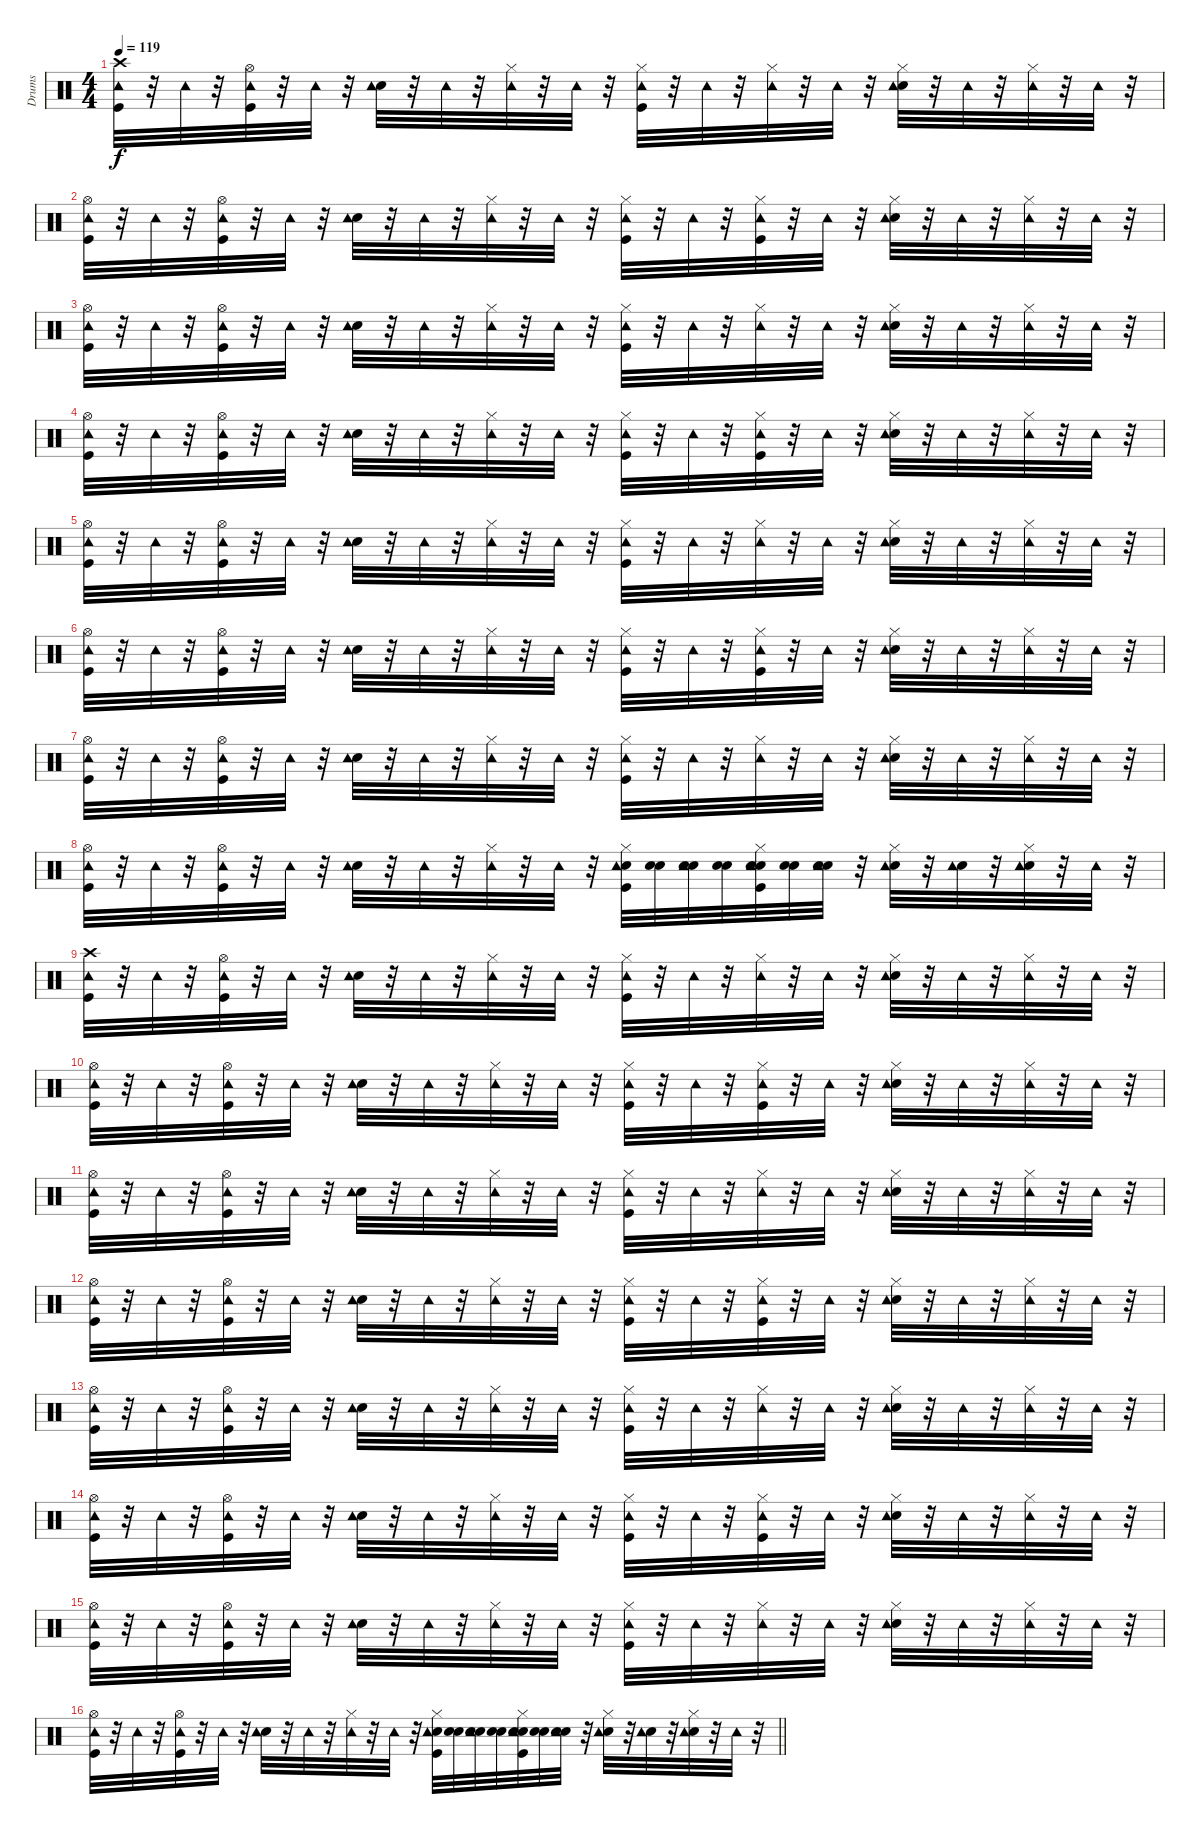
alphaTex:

\track ("Drums" "Drums") {instrument percussion}
\staff {score}
\articulation defaults
\ts (4 4)
\tempo 119
\clef neutral
\ks c
("Kick (hit)" "Crash high (hit)" "Tambourine (hit)").32{dy f} r.32 "Tambourine (hit)".32 r.32 ("Kick (hit)" "Hi-Hat (open)" "Tambourine (hit)").32 r.32 "Tambourine (hit)".32 r.32 ("Electric Snare (hit)" "Tambourine (hit)").32 r.32 "Tambourine (hit)".32 r.32 ("Hi-Hat (closed)" "Tambourine (hit)").32 r.32 "Tambourine (hit)".32 r.32 ("Kick (hit)" "Hi-Hat (closed)" "Tambourine (hit)").32 r.32 "Tambourine (hit)".32 r.32 ("Hi-Hat (closed)" "Tambourine (hit)").32 r.32 "Tambourine (hit)".32 r.32 ("Electric Snare (hit)" "Hi-Hat (closed)" "Tambourine (hit)").32 r.32 "Tambourine (hit)".32 r.32 ("Hi-Hat (closed)" "Tambourine (hit)").32 r.32 "Tambourine (hit)".32 r.32 |
("Kick (hit)" "Hi-Hat (open)" "Tambourine (hit)").32 r.32 "Tambourine (hit)".32 r.32 ("Kick (hit)" "Hi-Hat (open)" "Tambourine (hit)").32 r.32 "Tambourine (hit)".32 r.32 ("Electric Snare (hit)" "Tambourine (hit)").32 r.32 "Tambourine (hit)".32 r.32 ("Hi-Hat (closed)" "Tambourine (hit)").32 r.32 "Tambourine (hit)".32 r.32 ("Kick (hit)" "Hi-Hat (closed)" "Tambourine (hit)").32 r.32 "Tambourine (hit)".32 r.32 ("Kick (hit)" "Hi-Hat (closed)" "Tambourine (hit)").32 r.32 "Tambourine (hit)".32 r.32 ("Electric Snare (hit)" "Hi-Hat (closed)" "Tambourine (hit)").32 r.32 "Tambourine (hit)".32 r.32 ("Hi-Hat (closed)" "Tambourine (hit)").32 r.32 "Tambourine (hit)".32 r.32 |
("Kick (hit)" "Hi-Hat (open)" "Tambourine (hit)").32 r.32 "Tambourine (hit)".32 r.32 ("Kick (hit)" "Hi-Hat (open)" "Tambourine (hit)").32 r.32 "Tambourine (hit)".32 r.32 ("Electric Snare (hit)" "Tambourine (hit)").32 r.32 "Tambourine (hit)".32 r.32 ("Hi-Hat (closed)" "Tambourine (hit)").32 r.32 "Tambourine (hit)".32 r.32 ("Kick (hit)" "Hi-Hat (closed)" "Tambourine (hit)").32 r.32 "Tambourine (hit)".32 r.32 ("Hi-Hat (closed)" "Tambourine (hit)").32 r.32 "Tambourine (hit)".32 r.32 ("Electric Snare (hit)" "Hi-Hat (closed)" "Tambourine (hit)").32 r.32 "Tambourine (hit)".32 r.32 ("Hi-Hat (closed)" "Tambourine (hit)").32 r.32 "Tambourine (hit)".32 r.32 |
("Kick (hit)" "Hi-Hat (open)" "Tambourine (hit)").32 r.32 "Tambourine (hit)".32 r.32 ("Kick (hit)" "Hi-Hat (open)" "Tambourine (hit)").32 r.32 "Tambourine (hit)".32 r.32 ("Electric Snare (hit)" "Tambourine (hit)").32 r.32 "Tambourine (hit)".32 r.32 ("Hi-Hat (closed)" "Tambourine (hit)").32 r.32 "Tambourine (hit)".32 r.32 ("Kick (hit)" "Hi-Hat (closed)" "Tambourine (hit)").32 r.32 "Tambourine (hit)".32 r.32 ("Kick (hit)" "Hi-Hat (closed)" "Tambourine (hit)").32 r.32 "Tambourine (hit)".32 r.32 ("Electric Snare (hit)" "Hi-Hat (closed)" "Tambourine (hit)").32 r.32 "Tambourine (hit)".32 r.32 ("Hi-Hat (closed)" "Tambourine (hit)").32 r.32 "Tambourine (hit)".32 r.32 |
("Kick (hit)" "Hi-Hat (open)" "Tambourine (hit)").32 r.32 "Tambourine (hit)".32 r.32 ("Kick (hit)" "Hi-Hat (open)" "Tambourine (hit)").32 r.32 "Tambourine (hit)".32 r.32 ("Electric Snare (hit)" "Tambourine (hit)").32 r.32 "Tambourine (hit)".32 r.32 ("Hi-Hat (closed)" "Tambourine (hit)").32 r.32 "Tambourine (hit)".32 r.32 ("Kick (hit)" "Hi-Hat (closed)" "Tambourine (hit)").32 r.32 "Tambourine (hit)".32 r.32 ("Hi-Hat (closed)" "Tambourine (hit)").32 r.32 "Tambourine (hit)".32 r.32 ("Electric Snare (hit)" "Hi-Hat (closed)" "Tambourine (hit)").32 r.32 "Tambourine (hit)".32 r.32 ("Hi-Hat (closed)" "Tambourine (hit)").32 r.32 "Tambourine (hit)".32 r.32 |
("Kick (hit)" "Hi-Hat (open)" "Tambourine (hit)").32 r.32 "Tambourine (hit)".32 r.32 ("Kick (hit)" "Hi-Hat (open)" "Tambourine (hit)").32 r.32 "Tambourine (hit)".32 r.32 ("Electric Snare (hit)" "Tambourine (hit)").32 r.32 "Tambourine (hit)".32 r.32 ("Hi-Hat (closed)" "Tambourine (hit)").32 r.32 "Tambourine (hit)".32 r.32 ("Kick (hit)" "Hi-Hat (closed)" "Tambourine (hit)").32 r.32 "Tambourine (hit)".32 r.32 ("Kick (hit)" "Hi-Hat (closed)" "Tambourine (hit)").32 r.32 "Tambourine (hit)".32 r.32 ("Electric Snare (hit)" "Hi-Hat (closed)" "Tambourine (hit)").32 r.32 "Tambourine (hit)".32 r.32 ("Hi-Hat (closed)" "Tambourine (hit)").32 r.32 "Tambourine (hit)".32 r.32 |
("Kick (hit)" "Hi-Hat (open)" "Tambourine (hit)").32 r.32 "Tambourine (hit)".32 r.32 ("Kick (hit)" "Hi-Hat (open)" "Tambourine (hit)").32 r.32 "Tambourine (hit)".32 r.32 ("Electric Snare (hit)" "Tambourine (hit)").32 r.32 "Tambourine (hit)".32 r.32 ("Hi-Hat (closed)" "Tambourine (hit)").32 r.32 "Tambourine (hit)".32 r.32 ("Kick (hit)" "Hi-Hat (closed)" "Tambourine (hit)").32 r.32 "Tambourine (hit)".32 r.32 ("Hi-Hat (closed)" "Tambourine (hit)").32 r.32 "Tambourine (hit)".32 r.32 ("Electric Snare (hit)" "Hi-Hat (closed)" "Tambourine (hit)").32 r.32 "Tambourine (hit)".32 r.32 ("Hi-Hat (closed)" "Tambourine (hit)").32 r.32 "Tambourine (hit)".32 r.32 |
("Kick (hit)" "Hi-Hat (open)" "Tambourine (hit)").32 r.32 "Tambourine (hit)".32 r.32 ("Kick (hit)" "Hi-Hat (open)" "Tambourine (hit)").32 r.32 "Tambourine (hit)".32 r.32 ("Electric Snare (hit)" "Tambourine (hit)").32 r.32 "Tambourine (hit)".32 r.32 ("Hi-Hat (closed)" "Tambourine (hit)").32 r.32 "Tambourine (hit)".32 r.32 ("Kick (hit)" "Electric Snare (hit)" "Hi-Hat (closed)" "Tambourine (hit)").32 ("Snare (hit)" "Electric Snare (hit)").32 ("Snare (hit)" "Electric Snare (hit)" "Tambourine (hit)").32 ("Snare (hit)" "Electric Snare (hit)").32 ("Snare (hit)" "Kick (hit)" "Electric Snare (hit)" "Hi-Hat (closed)" "Tambourine (hit)").32 ("Snare (hit)" "Electric Snare (hit)").32 ("Snare (hit)" "Electric Snare (hit)" "Tambourine (hit)").32 r.32 ("Electric Snare (hit)" "Hi-Hat (closed)" "Tambourine (hit)").32 r.32 ("Electric Snare (hit)" "Tambourine (hit)").32 r.32 ("Electric Snare (hit)" "Hi-Hat (closed)" "Tambourine (hit)").32 r.32 "Tambourine (hit)".32 r.32 |
("Kick (hit)" "Crash high (hit)" "Tambourine (hit)").32 r.32 "Tambourine (hit)".32 r.32 ("Kick (hit)" "Hi-Hat (open)" "Tambourine (hit)").32 r.32 "Tambourine (hit)".32 r.32 ("Electric Snare (hit)" "Tambourine (hit)").32 r.32 "Tambourine (hit)".32 r.32 ("Hi-Hat (closed)" "Tambourine (hit)").32 r.32 "Tambourine (hit)".32 r.32 ("Kick (hit)" "Hi-Hat (closed)" "Tambourine (hit)").32 r.32 "Tambourine (hit)".32 r.32 ("Hi-Hat (closed)" "Tambourine (hit)").32 r.32 "Tambourine (hit)".32 r.32 ("Electric Snare (hit)" "Hi-Hat (closed)" "Tambourine (hit)").32 r.32 "Tambourine (hit)".32 r.32 ("Hi-Hat (closed)" "Tambourine (hit)").32 r.32 "Tambourine (hit)".32 r.32 |
("Kick (hit)" "Hi-Hat (open)" "Tambourine (hit)").32 r.32 "Tambourine (hit)".32 r.32 ("Kick (hit)" "Hi-Hat (open)" "Tambourine (hit)").32 r.32 "Tambourine (hit)".32 r.32 ("Electric Snare (hit)" "Tambourine (hit)").32 r.32 "Tambourine (hit)".32 r.32 ("Hi-Hat (closed)" "Tambourine (hit)").32 r.32 "Tambourine (hit)".32 r.32 ("Kick (hit)" "Hi-Hat (closed)" "Tambourine (hit)").32 r.32 "Tambourine (hit)".32 r.32 ("Kick (hit)" "Hi-Hat (closed)" "Tambourine (hit)").32 r.32 "Tambourine (hit)".32 r.32 ("Electric Snare (hit)" "Hi-Hat (closed)" "Tambourine (hit)").32 r.32 "Tambourine (hit)".32 r.32 ("Hi-Hat (closed)" "Tambourine (hit)").32 r.32 "Tambourine (hit)".32 r.32 |
("Kick (hit)" "Hi-Hat (open)" "Tambourine (hit)").32 r.32 "Tambourine (hit)".32 r.32 ("Kick (hit)" "Hi-Hat (open)" "Tambourine (hit)").32 r.32 "Tambourine (hit)".32 r.32 ("Electric Snare (hit)" "Tambourine (hit)").32 r.32 "Tambourine (hit)".32 r.32 ("Hi-Hat (closed)" "Tambourine (hit)").32 r.32 "Tambourine (hit)".32 r.32 ("Kick (hit)" "Hi-Hat (closed)" "Tambourine (hit)").32 r.32 "Tambourine (hit)".32 r.32 ("Hi-Hat (closed)" "Tambourine (hit)").32 r.32 "Tambourine (hit)".32 r.32 ("Electric Snare (hit)" "Hi-Hat (closed)" "Tambourine (hit)").32 r.32 "Tambourine (hit)".32 r.32 ("Hi-Hat (closed)" "Tambourine (hit)").32 r.32 "Tambourine (hit)".32 r.32 |
("Kick (hit)" "Hi-Hat (open)" "Tambourine (hit)").32 r.32 "Tambourine (hit)".32 r.32 ("Kick (hit)" "Hi-Hat (open)" "Tambourine (hit)").32 r.32 "Tambourine (hit)".32 r.32 ("Electric Snare (hit)" "Tambourine (hit)").32 r.32 "Tambourine (hit)".32 r.32 ("Hi-Hat (closed)" "Tambourine (hit)").32 r.32 "Tambourine (hit)".32 r.32 ("Kick (hit)" "Hi-Hat (closed)" "Tambourine (hit)").32 r.32 "Tambourine (hit)".32 r.32 ("Kick (hit)" "Hi-Hat (closed)" "Tambourine (hit)").32 r.32 "Tambourine (hit)".32 r.32 ("Electric Snare (hit)" "Hi-Hat (closed)" "Tambourine (hit)").32 r.32 "Tambourine (hit)".32 r.32 ("Hi-Hat (closed)" "Tambourine (hit)").32 r.32 "Tambourine (hit)".32 r.32 |
("Kick (hit)" "Hi-Hat (open)" "Tambourine (hit)").32 r.32 "Tambourine (hit)".32 r.32 ("Kick (hit)" "Hi-Hat (open)" "Tambourine (hit)").32 r.32 "Tambourine (hit)".32 r.32 ("Electric Snare (hit)" "Tambourine (hit)").32 r.32 "Tambourine (hit)".32 r.32 ("Hi-Hat (closed)" "Tambourine (hit)").32 r.32 "Tambourine (hit)".32 r.32 ("Kick (hit)" "Hi-Hat (closed)" "Tambourine (hit)").32 r.32 "Tambourine (hit)".32 r.32 ("Hi-Hat (closed)" "Tambourine (hit)").32 r.32 "Tambourine (hit)".32 r.32 ("Electric Snare (hit)" "Hi-Hat (closed)" "Tambourine (hit)").32 r.32 "Tambourine (hit)".32 r.32 ("Hi-Hat (closed)" "Tambourine (hit)").32 r.32 "Tambourine (hit)".32 r.32 |
("Kick (hit)" "Hi-Hat (open)" "Tambourine (hit)").32 r.32 "Tambourine (hit)".32 r.32 ("Kick (hit)" "Hi-Hat (open)" "Tambourine (hit)").32 r.32 "Tambourine (hit)".32 r.32 ("Electric Snare (hit)" "Tambourine (hit)").32 r.32 "Tambourine (hit)".32 r.32 ("Hi-Hat (closed)" "Tambourine (hit)").32 r.32 "Tambourine (hit)".32 r.32 ("Kick (hit)" "Hi-Hat (closed)" "Tambourine (hit)").32 r.32 "Tambourine (hit)".32 r.32 ("Kick (hit)" "Hi-Hat (closed)" "Tambourine (hit)").32 r.32 "Tambourine (hit)".32 r.32 ("Electric Snare (hit)" "Hi-Hat (closed)" "Tambourine (hit)").32 r.32 "Tambourine (hit)".32 r.32 ("Hi-Hat (closed)" "Tambourine (hit)").32 r.32 "Tambourine (hit)".32 r.32 |
("Kick (hit)" "Hi-Hat (open)" "Tambourine (hit)").32 r.32 "Tambourine (hit)".32 r.32 ("Kick (hit)" "Hi-Hat (open)" "Tambourine (hit)").32 r.32 "Tambourine (hit)".32 r.32 ("Electric Snare (hit)" "Tambourine (hit)").32 r.32 "Tambourine (hit)".32 r.32 ("Hi-Hat (closed)" "Tambourine (hit)").32 r.32 "Tambourine (hit)".32 r.32 ("Kick (hit)" "Hi-Hat (closed)" "Tambourine (hit)").32 r.32 "Tambourine (hit)".32 r.32 ("Hi-Hat (closed)" "Tambourine (hit)").32 r.32 "Tambourine (hit)".32 r.32 ("Electric Snare (hit)" "Hi-Hat (closed)" "Tambourine (hit)").32 r.32 "Tambourine (hit)".32 r.32 ("Hi-Hat (closed)" "Tambourine (hit)").32 r.32 "Tambourine (hit)".32 r.32 |
\barLineRight lightlight
("Kick (hit)" "Hi-Hat (open)" "Tambourine (hit)").32 r.32 "Tambourine (hit)".32 r.32 ("Kick (hit)" "Hi-Hat (open)" "Tambourine (hit)").32 r.32 "Tambourine (hit)".32 r.32 ("Electric Snare (hit)" "Tambourine (hit)").32 r.32 "Tambourine (hit)".32 r.32 ("Hi-Hat (closed)" "Tambourine (hit)").32 r.32 "Tambourine (hit)".32 r.32 ("Kick (hit)" "Electric Snare (hit)" "Hi-Hat (closed)" "Tambourine (hit)").32 ("Snare (hit)" "Electric Snare (hit)").32 ("Snare (hit)" "Electric Snare (hit)" "Tambourine (hit)").32 ("Snare (hit)" "Electric Snare (hit)").32 ("Snare (hit)" "Kick (hit)" "Electric Snare (hit)" "Hi-Hat (closed)" "Tambourine (hit)").32 ("Snare (hit)" "Electric Snare (hit)").32 ("Snare (hit)" "Electric Snare (hit)" "Tambourine (hit)").32 r.32 ("Electric Snare (hit)" "Hi-Hat (closed)" "Tambourine (hit)").32 r.32 ("Electric Snare (hit)" "Tambourine (hit)").32 r.32 ("Electric Snare (hit)" "Hi-Hat (closed)" "Tambourine (hit)").32 r.32 "Tambourine (hit)".32 r.32
